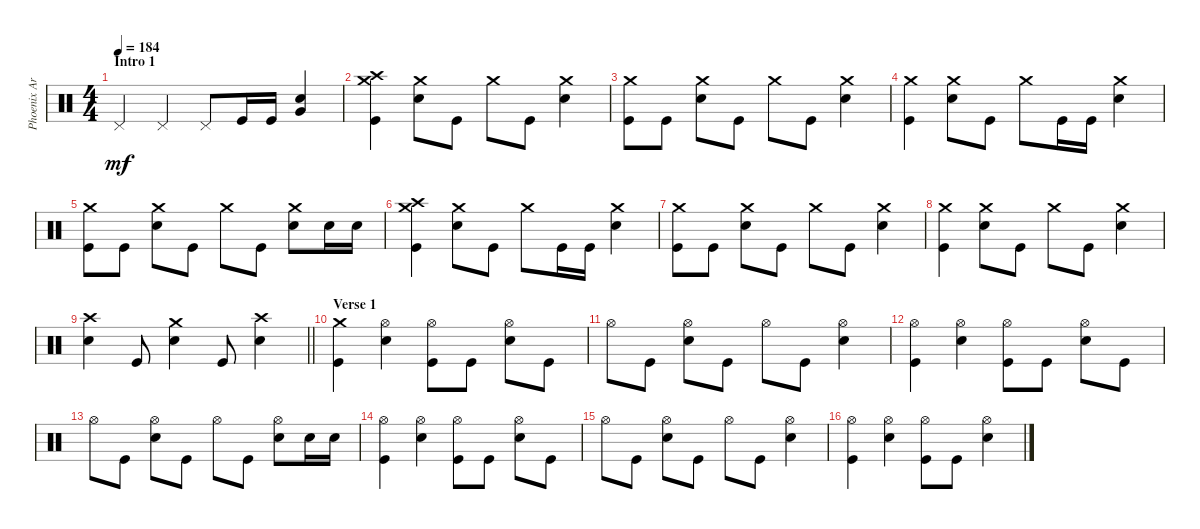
\track ("Phoenix Arn-Horn (Drums)" "Phoenix Ar") {instrument percussion}
\staff {score}
\articulation defaults
\ts (4 4)
\section ("" "Intro 1")
\tempo 184
\clef neutral
\ks c "Pedal Hi-Hat (hit)".4{dy mf} "Pedal Hi-Hat (hit)".4 "Pedal Hi-Hat (hit)".8 "Kick (hit)".16 "Kick (hit)".16
("Snare (hit) 2" "Very Low Tom (hit)").4 |
("Kick (hit)" "Crash medium (hit)" "Crash high (hit)").4 ("Snare (hit) 2" "Crash medium (hit)").8 "Kick (hit)".8 "Crash medium (hit)".8 "Kick (hit)".8 ("Snare (hit) 2" "Crash medium (hit)").4 |
("Kick (hit)" "Crash medium (hit)").8 "Kick (hit)".8 ("Snare (hit) 2" "Crash medium (hit)").8 "Kick (hit)".8 "Crash medium (hit)".8 "Kick (hit)".8 ("Snare (hit) 2" "Crash medium (hit)").4 |
("Kick (hit)" "Crash medium (hit)").4 ("Snare (hit) 2" "Crash medium (hit)").8 "Kick (hit)".8 "Crash medium (hit)".8 "Kick (hit)".16 "Kick (hit)".16 ("Snare (hit) 2" "Crash medium (hit)").4 |
("Kick (hit)" "Crash medium (hit)").8 "Kick (hit)".8 ("Snare (hit) 2" "Crash medium (hit)").8 "Kick (hit)".8 "Crash medium (hit)".8 "Kick (hit)".8 ("Snare (hit) 2" "Crash medium (hit)").8 "Snare (hit) 2".16 "Snare (hit) 2".16 |
("Kick (hit)" "Crash medium (hit)" "Crash high (hit)").4 ("Snare (hit) 2" "Crash medium (hit)").8 "Kick (hit)".8 "Crash medium (hit)".8 "Kick (hit)".16 "Kick (hit)".16 ("Snare (hit) 2" "Crash medium (hit)").4 |
("Kick (hit)" "Crash medium (hit)").8 "Kick (hit)".8 ("Snare (hit) 2" "Crash medium (hit)").8 "Kick (hit)".8 "Crash medium (hit)".8 "Kick (hit)".8 ("Snare (hit) 2" "Crash medium (hit)").4 |
("Kick (hit)" "Crash medium (hit)").4 ("Snare (hit) 2" "Crash medium (hit)").8 "Kick (hit)".8 "Crash medium (hit)".8 "Kick (hit)".8 ("Snare (hit) 2" "Crash medium (hit)").4 |
\barLineRight lightlight
("Snare (hit) 2" "Crash high (hit)").4 "Kick (hit)".8 ("Snare (hit) 2" "Crash medium (hit)").4 "Kick (hit)".8 ("Snare (hit) 2" "Crash high (hit)").4 |
\section ("" "Verse 1")
("Kick (hit)" "Crash medium (hit)").4 ("Snare (hit) 2" "Hi-Hat (open)").4 ("Kick (hit)" "Hi-Hat (open)").8 "Kick (hit)".8 ("Snare (hit) 2" "Hi-Hat (open)").8 "Kick (hit)".8 |
"Hi-Hat (open)".8 "Kick (hit)".8 ("Snare (hit) 2" "Hi-Hat (open)").8 "Kick (hit)".8 "Hi-Hat (open)".8 "Kick (hit)".8 ("Snare (hit) 2" "Hi-Hat (open)").4 |
("Kick (hit)" "Hi-Hat (open)").4 ("Snare (hit) 2" "Hi-Hat (open)").4 ("Kick (hit)" "Hi-Hat (open)").8 "Kick (hit)".8 ("Snare (hit) 2" "Hi-Hat (open)").8 "Kick (hit)".8 |
"Hi-Hat (open)".8 "Kick (hit)".8 ("Snare (hit) 2" "Hi-Hat (open)").8 "Kick (hit)".8 "Hi-Hat (open)".8 "Kick (hit)".8 ("Snare (hit) 2" "Hi-Hat (open)").8 "Snare (hit) 2".16 "Snare (hit) 2".16 |
("Kick (hit)" "Hi-Hat (open)").4 ("Snare (hit) 2" "Hi-Hat (open)").4 ("Kick (hit)" "Hi-Hat (open)").8 "Kick (hit)".8 ("Snare (hit) 2" "Hi-Hat (open)").8 "Kick (hit)".8 |
"Hi-Hat (open)".8 "Kick (hit)".8 ("Snare (hit) 2" "Hi-Hat (open)").8 "Kick (hit)".8 "Hi-Hat (open)".8 "Kick (hit)".8 ("Snare (hit) 2" "Hi-Hat (open)").4 |
("Kick (hit)" "Hi-Hat (open)").4 ("Snare (hit) 2" "Hi-Hat (open)").4 ("Kick (hit)" "Hi-Hat (open)").8 "Kick (hit)".8 ("Snare (hit) 2" "Hi-Hat (open)").4
